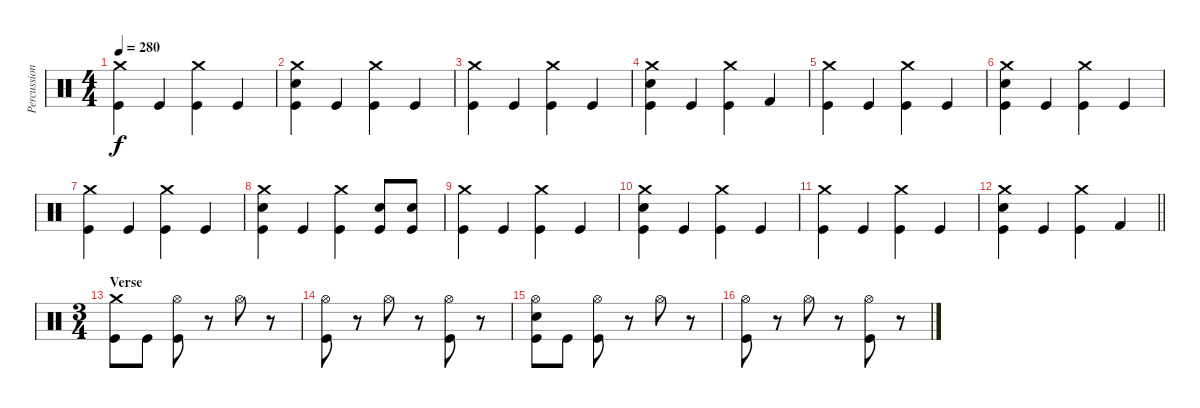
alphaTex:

\track ("Percussion" "Percussion") {instrument percussion}
\staff {score}
\articulation defaults
\ts (4 4)
\tempo 280
\clef neutral
\ks c
("Crash medium (hit)" "Kick (hit)").4{dy f} "Kick (hit)".4 ("Crash medium (hit)" "Kick (hit)").4 "Kick (hit)".4 |
("Crash medium (hit)" "Electric Snare (hit)" "Kick (hit)").4 "Kick (hit)".4 ("Crash medium (hit)" "Kick (hit)").4 "Kick (hit)".4 |
("Crash medium (hit)" "Kick (hit)").4 "Kick (hit)".4 ("Crash medium (hit)" "Kick (hit)").4 "Kick (hit)".4 |
("Crash medium (hit)" "Electric Snare (hit)" "Kick (hit)").4 "Kick (hit)".4 ("Crash medium (hit)" "Kick (hit)").4 "Kick (hit) 2".4 |
("Crash medium (hit)" "Kick (hit)").4 "Kick (hit)".4 ("Crash medium (hit)" "Kick (hit)").4 "Kick (hit)".4 |
("Crash medium (hit)" "Electric Snare (hit)" "Kick (hit)").4 "Kick (hit)".4 ("Crash medium (hit)" "Kick (hit)").4 "Kick (hit)".4 |
("Crash medium (hit)" "Kick (hit)").4 "Kick (hit)".4 ("Crash medium (hit)" "Kick (hit)").4 "Kick (hit)".4 |
("Crash medium (hit)" "Electric Snare (hit)" "Kick (hit)").4 "Kick (hit)".4 ("Crash medium (hit)" "Kick (hit)").4 ("Electric Snare (hit)" "Kick (hit)").8 ("Electric Snare (hit)" "Kick (hit)").8 |
("Crash medium (hit)" "Kick (hit)").4 "Kick (hit)".4 ("Crash medium (hit)" "Kick (hit)").4 "Kick (hit)".4 |
("Crash medium (hit)" "Electric Snare (hit)" "Kick (hit)").4 "Kick (hit)".4 ("Crash medium (hit)" "Kick (hit)").4 "Kick (hit)".4 |
("Crash medium (hit)" "Kick (hit)").4 "Kick (hit)".4 ("Crash medium (hit)" "Kick (hit)").4 "Kick (hit)".4 |
\barLineRight lightlight
("Crash medium (hit)" "Electric Snare (hit)" "Kick (hit)").4 "Kick (hit)".4 ("Crash medium (hit)" "Kick (hit)").4 "Kick (hit) 2".4 |
\ts (3 4)
\section ("" "Verse")
("Crash medium (hit)" "Kick (hit)").8 "Kick (hit)".8 ("Hi-Hat (open)" "Kick (hit)").8 r.8 "Hi-Hat (open)".8 r.8 |
("Hi-Hat (open)" "Kick (hit)").8 r.8 "Hi-Hat (open)".8 r.8 ("Hi-Hat (open)" "Kick (hit)").8 r.8 |
("Hi-Hat (open)" "Electric Snare (hit)" "Kick (hit)").8 "Kick (hit)".8 ("Hi-Hat (open)" "Kick (hit)").8 r.8 "Hi-Hat (open)".8 r.8 |
("Hi-Hat (open)" "Kick (hit)").8 r.8 "Hi-Hat (open)".8 r.8 ("Hi-Hat (open)" "Kick (hit)").8 r.8
